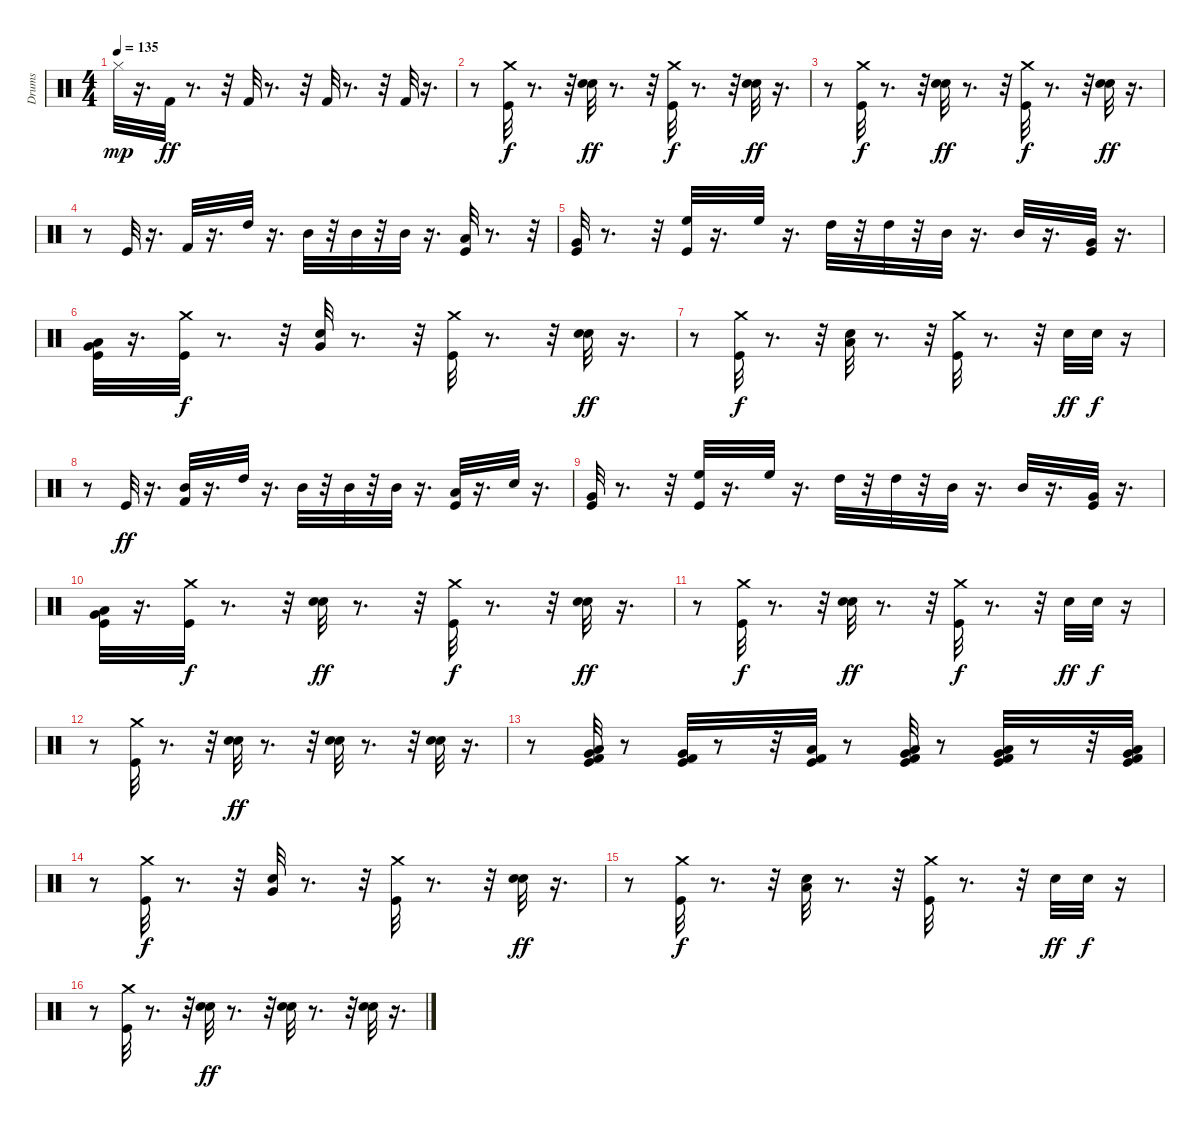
\track ("Drums" "Drums") {instrument percussion}
\staff {score}
\articulation defaults
\ts (4 4)
\tempo 135
\clef neutral
\ks c "Hi-Hat (closed)".32{dy mp}
r.16{d} "Kick (hit) 2".32{dy ff} r.8{d} r.32 "Kick (hit) 2".32 r.8{d} r.32 "Kick (hit) 2".32 r.8{d} r.32 "Kick (hit) 2".32 r.16{d} |
r.8 ("Kick (hit)" "Crash medium (hit)").32{dy f} r.8{d} r.32 ("Electric Snare (hit)" "Snare (hit) 2").32{dy ff} r.8{d} r.32 ("Kick (hit)" "Crash medium (hit)").32{dy f} r.8{d} r.32 ("Snare (hit) 2" "Electric Snare (hit)").32{dy ff} r.16{d} |
r.8 ("Kick (hit)" "Crash medium (hit)").32{dy f} r.8{d} r.32 ("Electric Snare (hit)" "Snare (hit) 2").32{dy ff} r.8{d} r.32 ("Kick (hit)" "Crash medium (hit)").32{dy f} r.8{d} r.32 ("Snare (hit) 2" "Electric Snare (hit)").32{dy ff} r.16{d} |
r.8 "Kick (hit)".32 r.16{d} "Kick (hit) 2".32 r.16{d} "High Tom (hit)".32 r.16{d} "Mid Tom (hit)".32 r.32 "Mid Tom (hit)".32 r.32 "Mid Tom (hit)".32 r.16{d} ("Kick (hit)" "Low Tom (hit)").32 r.8{d} r.32 |
("Kick (hit)" "Very Low Tom (hit)").32 r.8{d} r.32 ("Kick (hit)" "High Floor Tom (hit)").32 r.16{d} "High Floor Tom (hit)".32 r.16{d} "High Tom (hit)".32 r.32 "High Tom (hit)".32 r.32 "Mid Tom (hit)".32 r.16{d} "Mid Tom (hit)".32 r.16{d} ("Kick (hit)" "Very Low Tom (hit)").32 r.16{d} |
("Kick (hit)" "Very Low Tom (hit)" "Low Floor Tom (hit)").32 r.16{d} ("Crash medium (hit)" "Kick (hit)").32{dy f} r.8{d} r.32 ("Electric Snare (hit)" "Very Low Tom (hit)").32 r.8{d} r.32 ("Kick (hit)" "Crash medium (hit)").32 r.8{d} r.32 ("Snare (hit) 2" "Electric Snare (hit)").32{dy ff} r.16{d} |
r.8 ("Kick (hit)" "Crash medium (hit)").32{dy f} r.8{d} r.32 ("Electric Snare (hit)" "Low Tom (hit)").32 r.8{d} r.32 ("Kick (hit)" "Crash medium (hit)").32 r.8{d} r.32 "Snare (hit) 2".32{dy ff} "Electric Snare (hit)".32{dy f} r.16 |
r.8 "Kick (hit)".32{dy ff} r.16{d} ("Kick (hit) 2" "Mid Tom (hit)").32 r.16{d} "High Tom (hit)".32 r.16{d} "Mid Tom (hit)".32 r.32 "Mid Tom (hit)".32 r.32 "Mid Tom (hit)".32 r.16{d} ("Kick (hit)" "Low Tom (hit)").32 r.16{d} "Electric Snare (hit)".32 r.16{d} |
("Kick (hit)" "Very Low Tom (hit)").32 r.8{d} r.32 ("Kick (hit)" "High Floor Tom (hit)").32 r.16{d} "High Floor Tom (hit)".32 r.16{d} "High Tom (hit)".32 r.32 "High Tom (hit)".32 r.32 "Mid Tom (hit)".32 r.16{d} "Mid Tom (hit)".32 r.16{d} ("Kick (hit)" "Very Low Tom (hit)").32 r.16{d} |
("Kick (hit)" "Very Low Tom (hit)" "Low Floor Tom (hit)").32 r.16{d} ("Crash medium (hit)" "Kick (hit)").32{dy f} r.8{d} r.32 ("Electric Snare (hit)" "Snare (hit) 2").32{dy ff} r.8{d} r.32 ("Kick (hit)" "Crash medium (hit)").32{dy f} r.8{d} r.32 ("Snare (hit) 2" "Electric Snare (hit)").32{dy ff} r.16{d} |
r.8 ("Kick (hit)" "Crash medium (hit)").32{dy f} r.8{d} r.32 ("Electric Snare (hit)" "Snare (hit) 2").32{dy ff} r.8{d} r.32 ("Kick (hit)" "Crash medium (hit)").32{dy f} r.8{d} r.32 "Snare (hit) 2".32{dy ff} "Electric Snare (hit)".32{dy f} r.16 |
r.8 ("Kick (hit)" "Crash medium (hit)").32 r.8{d} r.32 ("Snare (hit) 2" "Electric Snare (hit)").32{dy ff} r.8{d} r.32 ("Snare (hit) 2" "Electric Snare (hit)").32 r.8{d} r.32 ("Snare (hit) 2" "Electric Snare (hit)").32 r.16{d} |
r.8 ("Very Low Tom (hit)" "Low Floor Tom (hit)" "Kick (hit)" "Kick (hit) 2").32 r.8 ("Kick (hit) 2" "Kick (hit)" "Very Low Tom (hit)").32 r.8 r.32 ("Kick (hit) 2" "Kick (hit)" "Low Floor Tom (hit)").32 r.8 ("Kick (hit)" "Kick (hit) 2" "Very Low Tom (hit)" "Low Floor Tom (hit)").32 r.8 ("Kick (hit) 2" "Low Floor Tom (hit)" "Kick (hit)" "Very Low Tom (hit)").32 r.8 r.32 ("Kick (hit)" "Kick (hit) 2" "Very Low Tom (hit)" "Low Floor Tom (hit)").32 |
r.8 ("Kick (hit)" "Crash medium (hit)").32{dy f} r.8{d} r.32 ("Electric Snare (hit)" "Very Low Tom (hit)").32 r.8{d} r.32 ("Kick (hit)" "Crash medium (hit)").32 r.8{d} r.32 ("Snare (hit) 2" "Electric Snare (hit)").32{dy ff} r.16{d} |
r.8 ("Kick (hit)" "Crash medium (hit)").32{dy f} r.8{d} r.32 ("Electric Snare (hit)" "Low Tom (hit)").32 r.8{d} r.32 ("Crash medium (hit)" "Kick (hit)").32 r.8{d} r.32 "Snare (hit) 2".32{dy ff} "Electric Snare (hit)".32{dy f} r.16 |
r.8 ("Kick (hit)" "Crash medium (hit)").32 r.8{d} r.32 ("Snare (hit) 2" "Electric Snare (hit)").32{dy ff} r.8{d} r.32 ("Snare (hit) 2" "Electric Snare (hit)").32 r.8{d} r.32 ("Electric Snare (hit)" "Snare (hit) 2").32 r.16{d}
